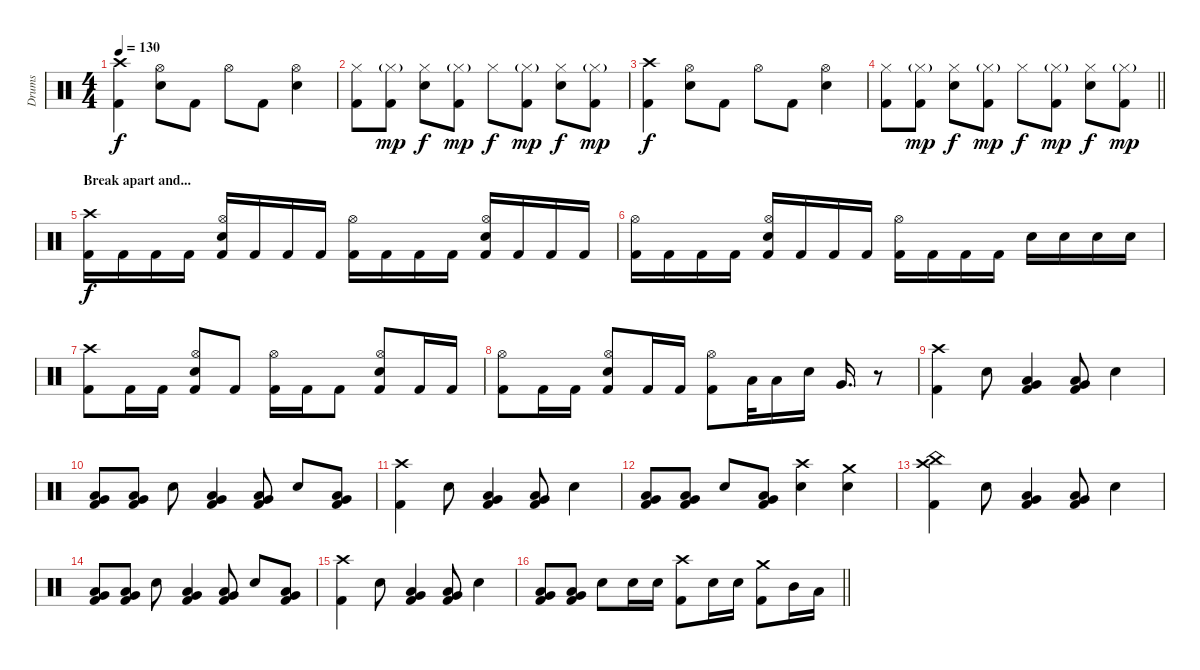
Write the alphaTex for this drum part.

\track ("Drums" "Drums") {instrument percussion}
\staff {score}
\articulation defaults
\ts (4 4)
\tempo 130
\clef neutral
\ks c
("Crash high (hit)" "Kick (hit) 2").4{dy f} ("Hi-Hat (open)" "Snare (hit) 2").8 "Kick (hit) 2".8 "Hi-Hat (open)".8 "Kick (hit) 2".8 ("Hi-Hat (open)" "Snare (hit) 2").4 |
("Hi-Hat (closed)" "Kick (hit) 2").8 ("Hi-Hat (closed)"{g} "Kick (hit) 2").8{dy mp} ("Hi-Hat (closed)" "Snare (hit) 2").8{dy f} ("Hi-Hat (closed)"{g} "Kick (hit) 2").8{dy mp} "Hi-Hat (closed)".8{dy f} ("Hi-Hat (closed)"{g} "Kick (hit) 2").8{dy mp} ("Hi-Hat (closed)" "Snare (hit) 2").8{dy f} ("Hi-Hat (closed)"{g} "Kick (hit) 2").8{dy mp} |
("Crash high (hit)" "Kick (hit) 2").4{dy f} ("Hi-Hat (open)" "Snare (hit) 2").8 "Kick (hit) 2".8 "Hi-Hat (open)".8 "Kick (hit) 2".8 ("Hi-Hat (open)" "Snare (hit) 2").4 |
\barLineRight lightlight
("Hi-Hat (closed)" "Kick (hit) 2").8 ("Hi-Hat (closed)"{g} "Kick (hit) 2").8{dy mp} ("Hi-Hat (closed)" "Snare (hit) 2").8{dy f} ("Hi-Hat (closed)"{g} "Kick (hit) 2").8{dy mp} "Hi-Hat (closed)".8{dy f} ("Hi-Hat (closed)"{g} "Kick (hit) 2").8{dy mp} ("Hi-Hat (closed)" "Snare (hit) 2").8{dy f} ("Hi-Hat (closed)"{g} "Kick (hit) 2").8{dy mp} |
\section ("" "Break apart and...")
("Crash high (hit)" "Kick (hit) 2").16{dy f} "Kick (hit) 2".16 "Kick (hit) 2".16 "Kick (hit) 2".16 ("Hi-Hat (open)" "Snare (hit) 2" "Kick (hit) 2").16 "Kick (hit) 2".16 "Kick (hit) 2".16 "Kick (hit) 2".16 ("Hi-Hat (open)" "Kick (hit) 2").16 "Kick (hit) 2".16 "Kick (hit) 2".16 "Kick (hit) 2".16 ("Hi-Hat (open)" "Snare (hit) 2" "Kick (hit) 2").16 "Kick (hit) 2".16 "Kick (hit) 2".16 "Kick (hit) 2".16 |
("Hi-Hat (open)" "Kick (hit) 2").16 "Kick (hit) 2".16 "Kick (hit) 2".16 "Kick (hit) 2".16 ("Hi-Hat (open)" "Snare (hit) 2" "Kick (hit) 2").16 "Kick (hit) 2".16 "Kick (hit) 2".16 "Kick (hit) 2".16 ("Hi-Hat (open)" "Kick (hit) 2").16 "Kick (hit) 2".16 "Kick (hit) 2".16 "Kick (hit) 2".16 "Snare (hit) 2".16 "Snare (hit) 2".16 "Snare (hit) 2".16 "Snare (hit) 2".16 |
("Crash high (hit)" "Kick (hit) 2").8 "Kick (hit) 2".16 "Kick (hit) 2".16 ("Hi-Hat (open)" "Snare (hit) 2" "Kick (hit) 2").8 "Kick (hit) 2".8 ("Hi-Hat (open)" "Kick (hit) 2").16 "Kick (hit) 2".16 "Kick (hit) 2".8 ("Hi-Hat (open)" "Snare (hit) 2" "Kick (hit) 2").8 "Kick (hit) 2".16 "Kick (hit) 2".16 |
("Hi-Hat (open)" "Kick (hit) 2").8 "Kick (hit) 2".16 "Kick (hit) 2".16 ("Hi-Hat (open)" "Snare (hit) 2" "Kick (hit) 2").8 "Kick (hit) 2".16 "Kick (hit) 2".16 ("Hi-Hat (open)" "Kick (hit) 2").8 "Low Tom (hit)".32 "Low Tom (hit)".16 "Snare (hit) 2".16 "Very Low Tom (hit)".16{d} r.8 |
("Crash high (hit)" "Kick (hit) 2").4 "Snare (hit) 2".8 ("Low Tom (hit)" "Very Low Tom (hit)" "Kick (hit) 2").4 ("Low Tom (hit)" "Very Low Tom (hit)" "Kick (hit) 2").8 "Snare (hit) 2".4 |
("Low Floor Tom (hit)" "Very Low Tom (hit)" "Kick (hit) 2").8 ("Low Floor Tom (hit)" "Very Low Tom (hit)" "Kick (hit) 2").8 "Snare (hit) 2".8 ("Low Tom (hit)" "Very Low Tom (hit)" "Kick (hit) 2").4 ("Low Tom (hit)" "Very Low Tom (hit)" "Kick (hit) 2").8 "Snare (hit) 2".8 ("Low Tom (hit)" "Very Low Tom (hit)" "Kick (hit) 2").8 |
("Crash high (hit)" "Kick (hit) 2").4 "Snare (hit) 2".8 ("Low Tom (hit)" "Very Low Tom (hit)" "Kick (hit) 2").4 ("Low Tom (hit)" "Very Low Tom (hit)" "Kick (hit) 2").8 "Snare (hit) 2".4 |
("Low Floor Tom (hit)" "Very Low Tom (hit)" "Kick (hit) 2").8 ("Low Floor Tom (hit)" "Very Low Tom (hit)" "Kick (hit) 2").8 "Snare (hit) 2".8 ("Low Tom (hit)" "Very Low Tom (hit)" "Kick (hit) 2").8 ("Crash high (hit)" "Snare (hit) 2").4 ("Crash medium (hit)" "Snare (hit) 2").4 |
("China (hit)" "Crash high (hit)" "Kick (hit) 2").4 "Snare (hit) 2".8 ("Low Tom (hit)" "Very Low Tom (hit)" "Kick (hit) 2").4 ("Low Tom (hit)" "Very Low Tom (hit)" "Kick (hit) 2").8 "Snare (hit) 2".4 |
("Low Floor Tom (hit)" "Very Low Tom (hit)" "Kick (hit) 2").8 ("Low Floor Tom (hit)" "Very Low Tom (hit)" "Kick (hit) 2").8 "Snare (hit) 2".8 ("Low Tom (hit)" "Very Low Tom (hit)" "Kick (hit) 2").4 ("Low Tom (hit)" "Very Low Tom (hit)" "Kick (hit) 2").8 "Snare (hit) 2".8 ("Low Tom (hit)" "Very Low Tom (hit)" "Kick (hit) 2").8 |
("Crash high (hit)" "Kick (hit) 2").4 "Snare (hit) 2".8 ("Low Tom (hit)" "Very Low Tom (hit)" "Kick (hit) 2").4 ("Low Tom (hit)" "Very Low Tom (hit)" "Kick (hit) 2").8 "Snare (hit) 2".4 |
\barLineRight lightlight
("Low Floor Tom (hit)" "Very Low Tom (hit)" "Kick (hit) 2").8 ("Low Floor Tom (hit)" "Very Low Tom (hit)" "Kick (hit) 2").8 "Snare (hit) 2".8 "Snare (hit) 2".16 "Snare (hit) 2".16 ("Crash high (hit)" "Kick (hit) 2").8 "Snare (hit) 2".16 "Snare (hit) 2".16 ("Crash medium (hit)" "Kick (hit) 2").8 "Mid Tom (hit)".16 "Low Tom (hit)".16
